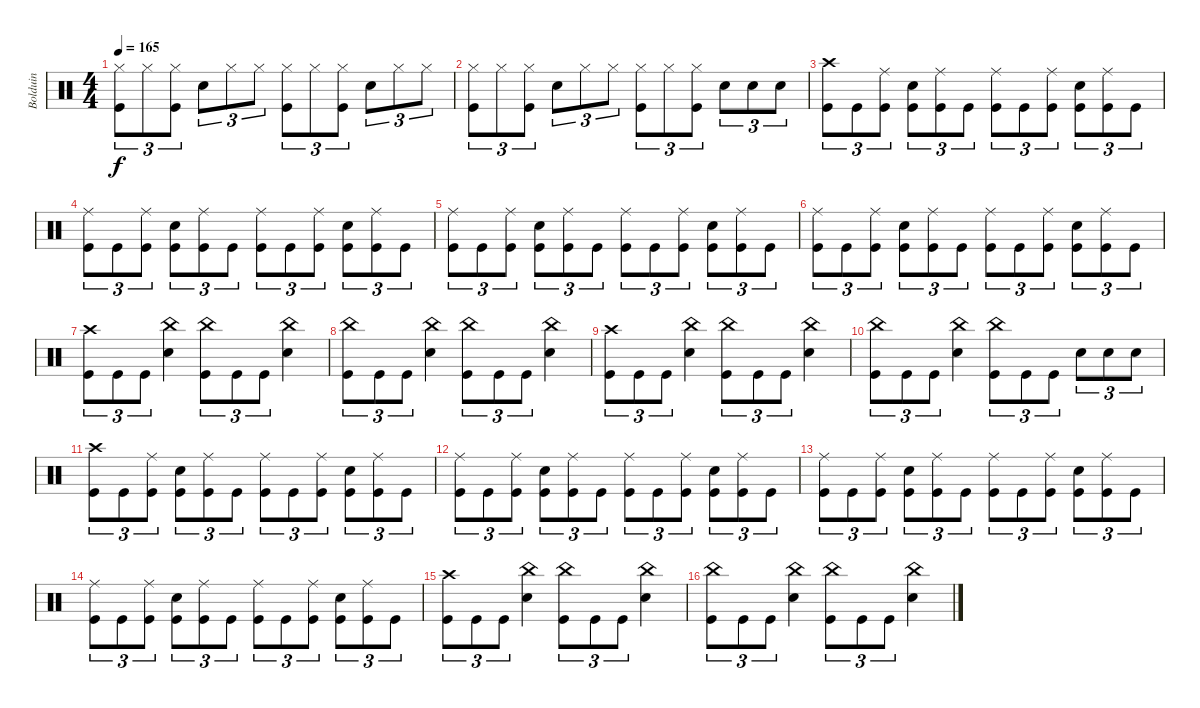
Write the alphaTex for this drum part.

\track ("Bolduin" "Bolduin") {instrument percussion}
\staff {score}
\articulation defaults
\ts (4 4)
\tempo 165
\clef neutral
\ks aminor
("Kick (hit)" "Hi-Hat (closed)").8{tu (3 2) dy f} "Hi-Hat (closed)".8{tu (3 2)} ("Kick (hit)" "Hi-Hat (closed)").8{tu (3 2)} "Snare (hit) 2".8{tu (3 2)} "Hi-Hat (closed)".8{tu (3 2)} "Hi-Hat (closed)".8{tu (3 2)} ("Kick (hit)" "Hi-Hat (closed)").8{tu (3 2)} "Hi-Hat (closed)".8{tu (3 2)} ("Kick (hit)" "Hi-Hat (closed)").8{tu (3 2)} "Snare (hit) 2".8{tu (3 2)} "Hi-Hat (closed)".8{tu (3 2)} "Hi-Hat (closed)".8{tu (3 2)} |
("Kick (hit)" "Hi-Hat (closed)").8{tu (3 2)} "Hi-Hat (closed)".8{tu (3 2)} ("Kick (hit)" "Hi-Hat (closed)").8{tu (3 2)} "Snare (hit) 2".8{tu (3 2)} "Hi-Hat (closed)".8{tu (3 2)} "Hi-Hat (closed)".8{tu (3 2)} ("Kick (hit)" "Hi-Hat (closed)").8{tu (3 2)} "Hi-Hat (closed)".8{tu (3 2)} ("Kick (hit)" "Hi-Hat (closed)").8{tu (3 2)} "Snare (hit) 2".8{tu (3 2)} "Snare (hit) 2".8{tu (3 2)} "Snare (hit) 2".8{tu (3 2)} |
("Crash high (hit)" "Kick (hit)").8{tu (3 2)} "Kick (hit)".8{tu (3 2)} ("Kick (hit)" "Ride (middle)").8{tu (3 2)} ("Kick (hit)" "Snare (hit) 2").8{tu (3 2)} ("Kick (hit)" "Ride (middle)").8{tu (3 2)} "Kick (hit)".8{tu (3 2)} ("Kick (hit)" "Ride (middle)").8{tu (3 2)} "Kick (hit)".8{tu (3 2)} ("Kick (hit)" "Ride (middle)").8{tu (3 2)} ("Kick (hit)" "Snare (hit) 2").8{tu (3 2)} ("Kick (hit)" "Ride (middle)").8{tu (3 2)} "Kick (hit)".8{tu (3 2)} |
("Kick (hit)" "Ride (middle)").8{tu (3 2)} "Kick (hit)".8{tu (3 2)} ("Kick (hit)" "Ride (middle)").8{tu (3 2)} ("Kick (hit)" "Snare (hit) 2").8{tu (3 2)} ("Kick (hit)" "Ride (middle)").8{tu (3 2)} "Kick (hit)".8{tu (3 2)} ("Kick (hit)" "Ride (middle)").8{tu (3 2)} "Kick (hit)".8{tu (3 2)} ("Kick (hit)" "Ride (middle)").8{tu (3 2)} ("Kick (hit)" "Snare (hit) 2").8{tu (3 2)} ("Kick (hit)" "Ride (middle)").8{tu (3 2)} "Kick (hit)".8{tu (3 2)} |
("Kick (hit)" "Ride (middle)").8{tu (3 2)} "Kick (hit)".8{tu (3 2)} ("Kick (hit)" "Ride (middle)").8{tu (3 2)} ("Kick (hit)" "Snare (hit) 2").8{tu (3 2)} ("Kick (hit)" "Ride (middle)").8{tu (3 2)} "Kick (hit)".8{tu (3 2)} ("Kick (hit)" "Ride (middle)").8{tu (3 2)} "Kick (hit)".8{tu (3 2)} ("Kick (hit)" "Ride (middle)").8{tu (3 2)} ("Kick (hit)" "Snare (hit) 2").8{tu (3 2)} ("Kick (hit)" "Ride (middle)").8{tu (3 2)} "Kick (hit)".8{tu (3 2)} |
("Kick (hit)" "Ride (middle)").8{tu (3 2)} "Kick (hit)".8{tu (3 2)} ("Kick (hit)" "Ride (middle)").8{tu (3 2)} ("Kick (hit)" "Snare (hit) 2").8{tu (3 2)} ("Kick (hit)" "Ride (middle)").8{tu (3 2)} "Kick (hit)".8{tu (3 2)} ("Kick (hit)" "Ride (middle)").8{tu (3 2)} "Kick (hit)".8{tu (3 2)} ("Kick (hit)" "Ride (middle)").8{tu (3 2)} ("Kick (hit)" "Snare (hit) 2").8{tu (3 2)} ("Kick (hit)" "Ride (middle)").8{tu (3 2)} "Kick (hit)".8{tu (3 2)} |
("Crash high (hit)" "Kick (hit)").8{tu (3 2)} "Kick (hit)".8{tu (3 2)} "Kick (hit)".8{tu (3 2)} ("China (hit)" "Snare (hit) 2").4 ("Kick (hit)" "China (hit)").8{tu (3 2)} "Kick (hit)".8{tu (3 2)} "Kick (hit)".8{tu (3 2)} ("Snare (hit) 2" "China (hit)").4 |
("China (hit)" "Kick (hit)").8{tu (3 2)} "Kick (hit)".8{tu (3 2)} "Kick (hit)".8{tu (3 2)} ("China (hit)" "Snare (hit) 2").4 ("Kick (hit)" "China (hit)").8{tu (3 2)} "Kick (hit)".8{tu (3 2)} "Kick (hit)".8{tu (3 2)} ("Snare (hit) 2" "China (hit)").4 |
("Crash high (hit)" "Kick (hit)").8{tu (3 2)} "Kick (hit)".8{tu (3 2)} "Kick (hit)".8{tu (3 2)} ("China (hit)" "Snare (hit) 2").4 ("Kick (hit)" "China (hit)").8{tu (3 2)} "Kick (hit)".8{tu (3 2)} "Kick (hit)".8{tu (3 2)} ("Snare (hit) 2" "China (hit)").4 |
("China (hit)" "Kick (hit)").8{tu (3 2)} "Kick (hit)".8{tu (3 2)} "Kick (hit)".8{tu (3 2)} ("China (hit)" "Snare (hit) 2").4 ("Kick (hit)" "China (hit)").8{tu (3 2)} "Kick (hit)".8{tu (3 2)} "Kick (hit)".8{tu (3 2)} "Snare (hit) 2".8{tu (3 2)} "Snare (hit) 2".8{tu (3 2)} "Snare (hit) 2".8{tu (3 2)} |
("Crash high (hit)" "Kick (hit)").8{tu (3 2)} "Kick (hit)".8{tu (3 2)} ("Kick (hit)" "Ride (middle)").8{tu (3 2)} ("Kick (hit)" "Snare (hit) 2").8{tu (3 2)} ("Kick (hit)" "Ride (middle)").8{tu (3 2)} "Kick (hit)".8{tu (3 2)} ("Kick (hit)" "Ride (middle)").8{tu (3 2)} "Kick (hit)".8{tu (3 2)} ("Kick (hit)" "Ride (middle)").8{tu (3 2)} ("Kick (hit)" "Snare (hit) 2").8{tu (3 2)} ("Kick (hit)" "Ride (middle)").8{tu (3 2)} "Kick (hit)".8{tu (3 2)} |
("Kick (hit)" "Ride (middle)").8{tu (3 2)} "Kick (hit)".8{tu (3 2)} ("Kick (hit)" "Ride (middle)").8{tu (3 2)} ("Kick (hit)" "Snare (hit) 2").8{tu (3 2)} ("Kick (hit)" "Ride (middle)").8{tu (3 2)} "Kick (hit)".8{tu (3 2)} ("Kick (hit)" "Ride (middle)").8{tu (3 2)} "Kick (hit)".8{tu (3 2)} ("Kick (hit)" "Ride (middle)").8{tu (3 2)} ("Kick (hit)" "Snare (hit) 2").8{tu (3 2)} ("Kick (hit)" "Ride (middle)").8{tu (3 2)} "Kick (hit)".8{tu (3 2)} |
("Kick (hit)" "Ride (middle)").8{tu (3 2)} "Kick (hit)".8{tu (3 2)} ("Kick (hit)" "Ride (middle)").8{tu (3 2)} ("Kick (hit)" "Snare (hit) 2").8{tu (3 2)} ("Kick (hit)" "Ride (middle)").8{tu (3 2)} "Kick (hit)".8{tu (3 2)} ("Kick (hit)" "Ride (middle)").8{tu (3 2)} "Kick (hit)".8{tu (3 2)} ("Kick (hit)" "Ride (middle)").8{tu (3 2)} ("Kick (hit)" "Snare (hit) 2").8{tu (3 2)} ("Kick (hit)" "Ride (middle)").8{tu (3 2)} "Kick (hit)".8{tu (3 2)} |
("Kick (hit)" "Ride (middle)").8{tu (3 2)} "Kick (hit)".8{tu (3 2)} ("Kick (hit)" "Ride (middle)").8{tu (3 2)} ("Kick (hit)" "Snare (hit) 2").8{tu (3 2)} ("Kick (hit)" "Ride (middle)").8{tu (3 2)} "Kick (hit)".8{tu (3 2)} ("Kick (hit)" "Ride (middle)").8{tu (3 2)} "Kick (hit)".8{tu (3 2)} ("Kick (hit)" "Ride (middle)").8{tu (3 2)} ("Kick (hit)" "Snare (hit) 2").8{tu (3 2)} ("Kick (hit)" "Ride (middle)").8{tu (3 2)} "Kick (hit)".8{tu (3 2)} |
("Crash high (hit)" "Kick (hit)").8{tu (3 2)} "Kick (hit)".8{tu (3 2)} "Kick (hit)".8{tu (3 2)} ("China (hit)" "Snare (hit) 2").4 ("Kick (hit)" "China (hit)").8{tu (3 2)} "Kick (hit)".8{tu (3 2)} "Kick (hit)".8{tu (3 2)} ("Snare (hit) 2" "China (hit)").4 |
("China (hit)" "Kick (hit)").8{tu (3 2)} "Kick (hit)".8{tu (3 2)} "Kick (hit)".8{tu (3 2)} ("China (hit)" "Snare (hit) 2").4 ("Kick (hit)" "China (hit)").8{tu (3 2)} "Kick (hit)".8{tu (3 2)} "Kick (hit)".8{tu (3 2)} ("Snare (hit) 2" "China (hit)").4
